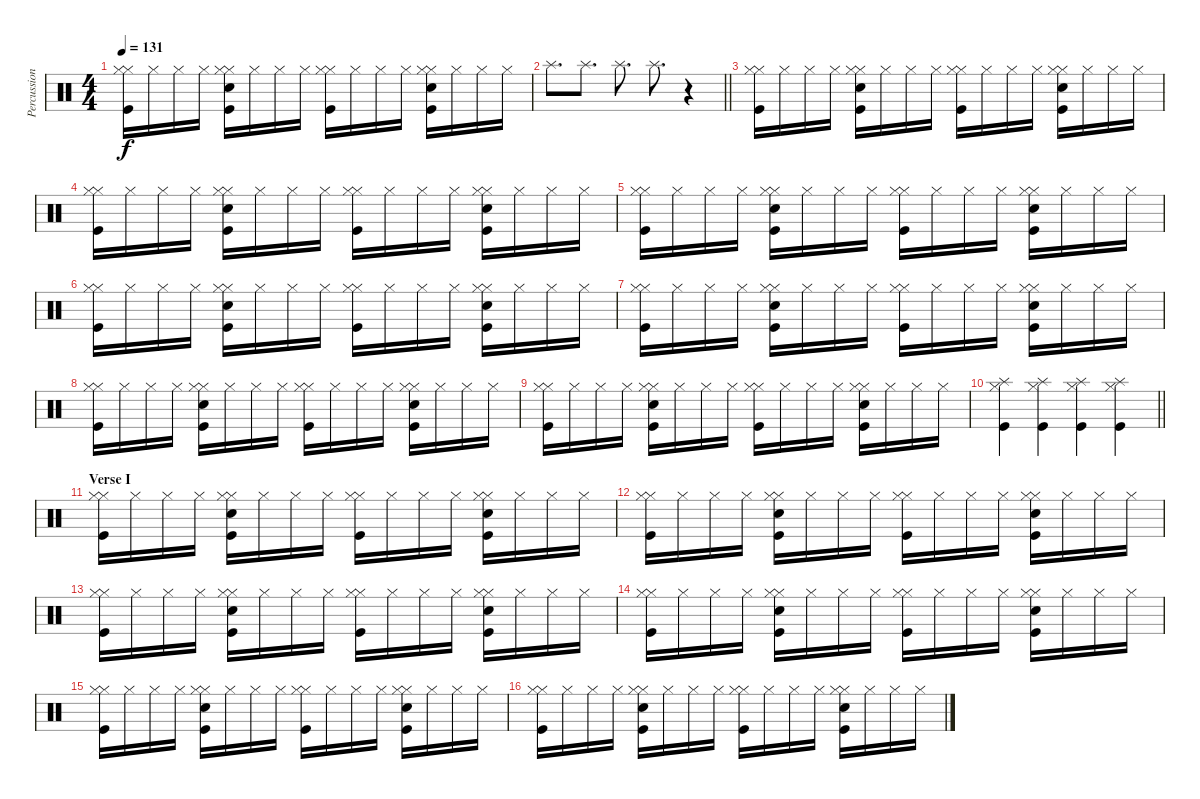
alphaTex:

\track ("Percussion I" "Percussion") {instrument percussion}
\staff {score}
\articulation defaults
\ts (4 4)
\tempo 131
\clef neutral
\ks c
("Hi-Hat (closed)" "Hi-Hat (closed)" "Kick (hit)").16{dy f} "Hi-Hat (closed)".16 "Hi-Hat (closed)".16 "Hi-Hat (closed)".16 ("Hi-Hat (closed)" "Hand Clap (hit)" "Hi-Hat (closed)" "Kick (hit)").16 "Hi-Hat (closed)".16 "Hi-Hat (closed)".16 "Hi-Hat (closed)".16 ("Hi-Hat (closed)" "Hi-Hat (closed)" "Kick (hit)").16 "Hi-Hat (closed)".16 "Hi-Hat (closed)".16 "Hi-Hat (closed)".16 ("Hi-Hat (closed)" "Hand Clap (hit)" "Hi-Hat (closed)" "Kick (hit)").16 "Hi-Hat (closed)".16 "Hi-Hat (closed)".16 "Hi-Hat (closed)".16 |
\barLineRight lightlight "Splash (hit)".8{d} "Splash (hit)".8{d} "Splash (hit)".8{d} "Splash (hit)".8{d}
r.4 |
\section ("" "")
("Hi-Hat (closed)" "Hi-Hat (closed)" "Kick (hit)").16 "Hi-Hat (closed)".16 "Hi-Hat (closed)".16 "Hi-Hat (closed)".16 ("Hi-Hat (closed)" "Hand Clap (hit)" "Hi-Hat (closed)" "Kick (hit)").16 "Hi-Hat (closed)".16 "Hi-Hat (closed)".16 "Hi-Hat (closed)".16 ("Hi-Hat (closed)" "Hi-Hat (closed)" "Kick (hit)").16 "Hi-Hat (closed)".16 "Hi-Hat (closed)".16 "Hi-Hat (closed)".16 ("Hi-Hat (closed)" "Hand Clap (hit)" "Hi-Hat (closed)" "Kick (hit)").16 "Hi-Hat (closed)".16 "Hi-Hat (closed)".16 "Hi-Hat (closed)".16 |
("Hi-Hat (closed)" "Hi-Hat (closed)" "Kick (hit)").16 "Hi-Hat (closed)".16 "Hi-Hat (closed)".16 "Hi-Hat (closed)".16 ("Hi-Hat (closed)" "Hand Clap (hit)" "Hi-Hat (closed)" "Kick (hit)").16 "Hi-Hat (closed)".16 "Hi-Hat (closed)".16 "Hi-Hat (closed)".16 ("Hi-Hat (closed)" "Hi-Hat (closed)" "Kick (hit)").16 "Hi-Hat (closed)".16 "Hi-Hat (closed)".16 "Hi-Hat (closed)".16 ("Hi-Hat (closed)" "Hand Clap (hit)" "Hi-Hat (closed)" "Kick (hit)").16 "Hi-Hat (closed)".16 "Hi-Hat (closed)".16 "Hi-Hat (closed)".16 |
("Hi-Hat (closed)" "Hi-Hat (closed)" "Kick (hit)").16 "Hi-Hat (closed)".16 "Hi-Hat (closed)".16 "Hi-Hat (closed)".16 ("Hi-Hat (closed)" "Hand Clap (hit)" "Hi-Hat (closed)" "Kick (hit)").16 "Hi-Hat (closed)".16 "Hi-Hat (closed)".16 "Hi-Hat (closed)".16 ("Hi-Hat (closed)" "Hi-Hat (closed)" "Kick (hit)").16 "Hi-Hat (closed)".16 "Hi-Hat (closed)".16 "Hi-Hat (closed)".16 ("Hi-Hat (closed)" "Hand Clap (hit)" "Hi-Hat (closed)" "Kick (hit)").16 "Hi-Hat (closed)".16 "Hi-Hat (closed)".16 "Hi-Hat (closed)".16 |
("Hi-Hat (closed)" "Hi-Hat (closed)" "Kick (hit)").16 "Hi-Hat (closed)".16 "Hi-Hat (closed)".16 "Hi-Hat (closed)".16 ("Hi-Hat (closed)" "Hand Clap (hit)" "Hi-Hat (closed)" "Kick (hit)").16 "Hi-Hat (closed)".16 "Hi-Hat (closed)".16 "Hi-Hat (closed)".16 ("Hi-Hat (closed)" "Hi-Hat (closed)" "Kick (hit)").16 "Hi-Hat (closed)".16 "Hi-Hat (closed)".16 "Hi-Hat (closed)".16 ("Hi-Hat (closed)" "Hand Clap (hit)" "Hi-Hat (closed)" "Kick (hit)").16 "Hi-Hat (closed)".16 "Hi-Hat (closed)".16 "Hi-Hat (closed)".16 |
("Hi-Hat (closed)" "Hi-Hat (closed)" "Kick (hit)").16 "Hi-Hat (closed)".16 "Hi-Hat (closed)".16 "Hi-Hat (closed)".16 ("Hi-Hat (closed)" "Hand Clap (hit)" "Hi-Hat (closed)" "Kick (hit)").16 "Hi-Hat (closed)".16 "Hi-Hat (closed)".16 "Hi-Hat (closed)".16 ("Hi-Hat (closed)" "Hi-Hat (closed)" "Kick (hit)").16 "Hi-Hat (closed)".16 "Hi-Hat (closed)".16 "Hi-Hat (closed)".16 ("Hi-Hat (closed)" "Hand Clap (hit)" "Hi-Hat (closed)" "Kick (hit)").16 "Hi-Hat (closed)".16 "Hi-Hat (closed)".16 "Hi-Hat (closed)".16 |
("Hi-Hat (closed)" "Hi-Hat (closed)" "Kick (hit)").16 "Hi-Hat (closed)".16 "Hi-Hat (closed)".16 "Hi-Hat (closed)".16 ("Hi-Hat (closed)" "Hand Clap (hit)" "Hi-Hat (closed)" "Kick (hit)").16 "Hi-Hat (closed)".16 "Hi-Hat (closed)".16 "Hi-Hat (closed)".16 ("Hi-Hat (closed)" "Hi-Hat (closed)" "Kick (hit)").16 "Hi-Hat (closed)".16 "Hi-Hat (closed)".16 "Hi-Hat (closed)".16 ("Hi-Hat (closed)" "Hand Clap (hit)" "Hi-Hat (closed)" "Kick (hit)").16 "Hi-Hat (closed)".16 "Hi-Hat (closed)".16 "Hi-Hat (closed)".16 |
("Hi-Hat (closed)" "Hi-Hat (closed)" "Kick (hit)").16 "Hi-Hat (closed)".16 "Hi-Hat (closed)".16 "Hi-Hat (closed)".16 ("Hi-Hat (closed)" "Hand Clap (hit)" "Hi-Hat (closed)" "Kick (hit)").16 "Hi-Hat (closed)".16 "Hi-Hat (closed)".16 "Hi-Hat (closed)".16 ("Hi-Hat (closed)" "Hi-Hat (closed)" "Kick (hit)").16 "Hi-Hat (closed)".16 "Hi-Hat (closed)".16 "Hi-Hat (closed)".16 ("Hi-Hat (closed)" "Hand Clap (hit)" "Hi-Hat (closed)" "Kick (hit)").16 "Hi-Hat (closed)".16 "Hi-Hat (closed)".16 "Hi-Hat (closed)".16 |
\barLineRight lightlight
("Splash (hit)" "Hi-Hat (closed)" "Kick (hit)").4 ("Splash (hit)" "Hi-Hat (closed)" "Kick (hit)").4 ("Splash (hit)" "Hi-Hat (closed)" "Kick (hit)").4 ("Splash (hit)" "Hi-Hat (closed)" "Kick (hit)").4 |
\section ("" "Verse I")
("Hi-Hat (closed)" "Hi-Hat (closed)" "Kick (hit)").16 "Hi-Hat (closed)".16 "Hi-Hat (closed)".16 "Hi-Hat (closed)".16 ("Hi-Hat (closed)" "Hand Clap (hit)" "Hi-Hat (closed)" "Kick (hit)").16 "Hi-Hat (closed)".16 "Hi-Hat (closed)".16 "Hi-Hat (closed)".16 ("Hi-Hat (closed)" "Hi-Hat (closed)" "Kick (hit)").16 "Hi-Hat (closed)".16 "Hi-Hat (closed)".16 "Hi-Hat (closed)".16 ("Hi-Hat (closed)" "Hand Clap (hit)" "Hi-Hat (closed)" "Kick (hit)").16 "Hi-Hat (closed)".16 "Hi-Hat (closed)".16 "Hi-Hat (closed)".16 |
("Hi-Hat (closed)" "Hi-Hat (closed)" "Kick (hit)").16 "Hi-Hat (closed)".16 "Hi-Hat (closed)".16 "Hi-Hat (closed)".16 ("Hi-Hat (closed)" "Hand Clap (hit)" "Hi-Hat (closed)" "Kick (hit)").16 "Hi-Hat (closed)".16 "Hi-Hat (closed)".16 "Hi-Hat (closed)".16 ("Hi-Hat (closed)" "Hi-Hat (closed)" "Kick (hit)").16 "Hi-Hat (closed)".16 "Hi-Hat (closed)".16 "Hi-Hat (closed)".16 ("Hi-Hat (closed)" "Hand Clap (hit)" "Hi-Hat (closed)" "Kick (hit)").16 "Hi-Hat (closed)".16 "Hi-Hat (closed)".16 "Hi-Hat (closed)".16 |
("Hi-Hat (closed)" "Hi-Hat (closed)" "Kick (hit)").16 "Hi-Hat (closed)".16 "Hi-Hat (closed)".16 "Hi-Hat (closed)".16 ("Hi-Hat (closed)" "Hand Clap (hit)" "Hi-Hat (closed)" "Kick (hit)").16 "Hi-Hat (closed)".16 "Hi-Hat (closed)".16 "Hi-Hat (closed)".16 ("Hi-Hat (closed)" "Hi-Hat (closed)" "Kick (hit)").16 "Hi-Hat (closed)".16 "Hi-Hat (closed)".16 "Hi-Hat (closed)".16 ("Hi-Hat (closed)" "Hand Clap (hit)" "Hi-Hat (closed)" "Kick (hit)").16 "Hi-Hat (closed)".16 "Hi-Hat (closed)".16 "Hi-Hat (closed)".16 |
("Hi-Hat (closed)" "Hi-Hat (closed)" "Kick (hit)").16 "Hi-Hat (closed)".16 "Hi-Hat (closed)".16 "Hi-Hat (closed)".16 ("Hi-Hat (closed)" "Hand Clap (hit)" "Hi-Hat (closed)" "Kick (hit)").16 "Hi-Hat (closed)".16 "Hi-Hat (closed)".16 "Hi-Hat (closed)".16 ("Hi-Hat (closed)" "Hi-Hat (closed)" "Kick (hit)").16 "Hi-Hat (closed)".16 "Hi-Hat (closed)".16 "Hi-Hat (closed)".16 ("Hi-Hat (closed)" "Hand Clap (hit)" "Hi-Hat (closed)" "Kick (hit)").16 "Hi-Hat (closed)".16 "Hi-Hat (closed)".16 "Hi-Hat (closed)".16 |
("Hi-Hat (closed)" "Hi-Hat (closed)" "Kick (hit)").16 "Hi-Hat (closed)".16 "Hi-Hat (closed)".16 "Hi-Hat (closed)".16 ("Hi-Hat (closed)" "Hand Clap (hit)" "Hi-Hat (closed)" "Kick (hit)").16 "Hi-Hat (closed)".16 "Hi-Hat (closed)".16 "Hi-Hat (closed)".16 ("Hi-Hat (closed)" "Hi-Hat (closed)" "Kick (hit)").16 "Hi-Hat (closed)".16 "Hi-Hat (closed)".16 "Hi-Hat (closed)".16 ("Hi-Hat (closed)" "Hand Clap (hit)" "Hi-Hat (closed)" "Kick (hit)").16 "Hi-Hat (closed)".16 "Hi-Hat (closed)".16 "Hi-Hat (closed)".16 |
("Hi-Hat (closed)" "Hi-Hat (closed)" "Kick (hit)").16 "Hi-Hat (closed)".16 "Hi-Hat (closed)".16 "Hi-Hat (closed)".16 ("Hi-Hat (closed)" "Hand Clap (hit)" "Hi-Hat (closed)" "Kick (hit)").16 "Hi-Hat (closed)".16 "Hi-Hat (closed)".16 "Hi-Hat (closed)".16 ("Hi-Hat (closed)" "Hi-Hat (closed)" "Kick (hit)").16 "Hi-Hat (closed)".16 "Hi-Hat (closed)".16 "Hi-Hat (closed)".16 ("Hi-Hat (closed)" "Hand Clap (hit)" "Hi-Hat (closed)" "Kick (hit)").16 "Hi-Hat (closed)".16 "Hi-Hat (closed)".16 "Hi-Hat (closed)".16
